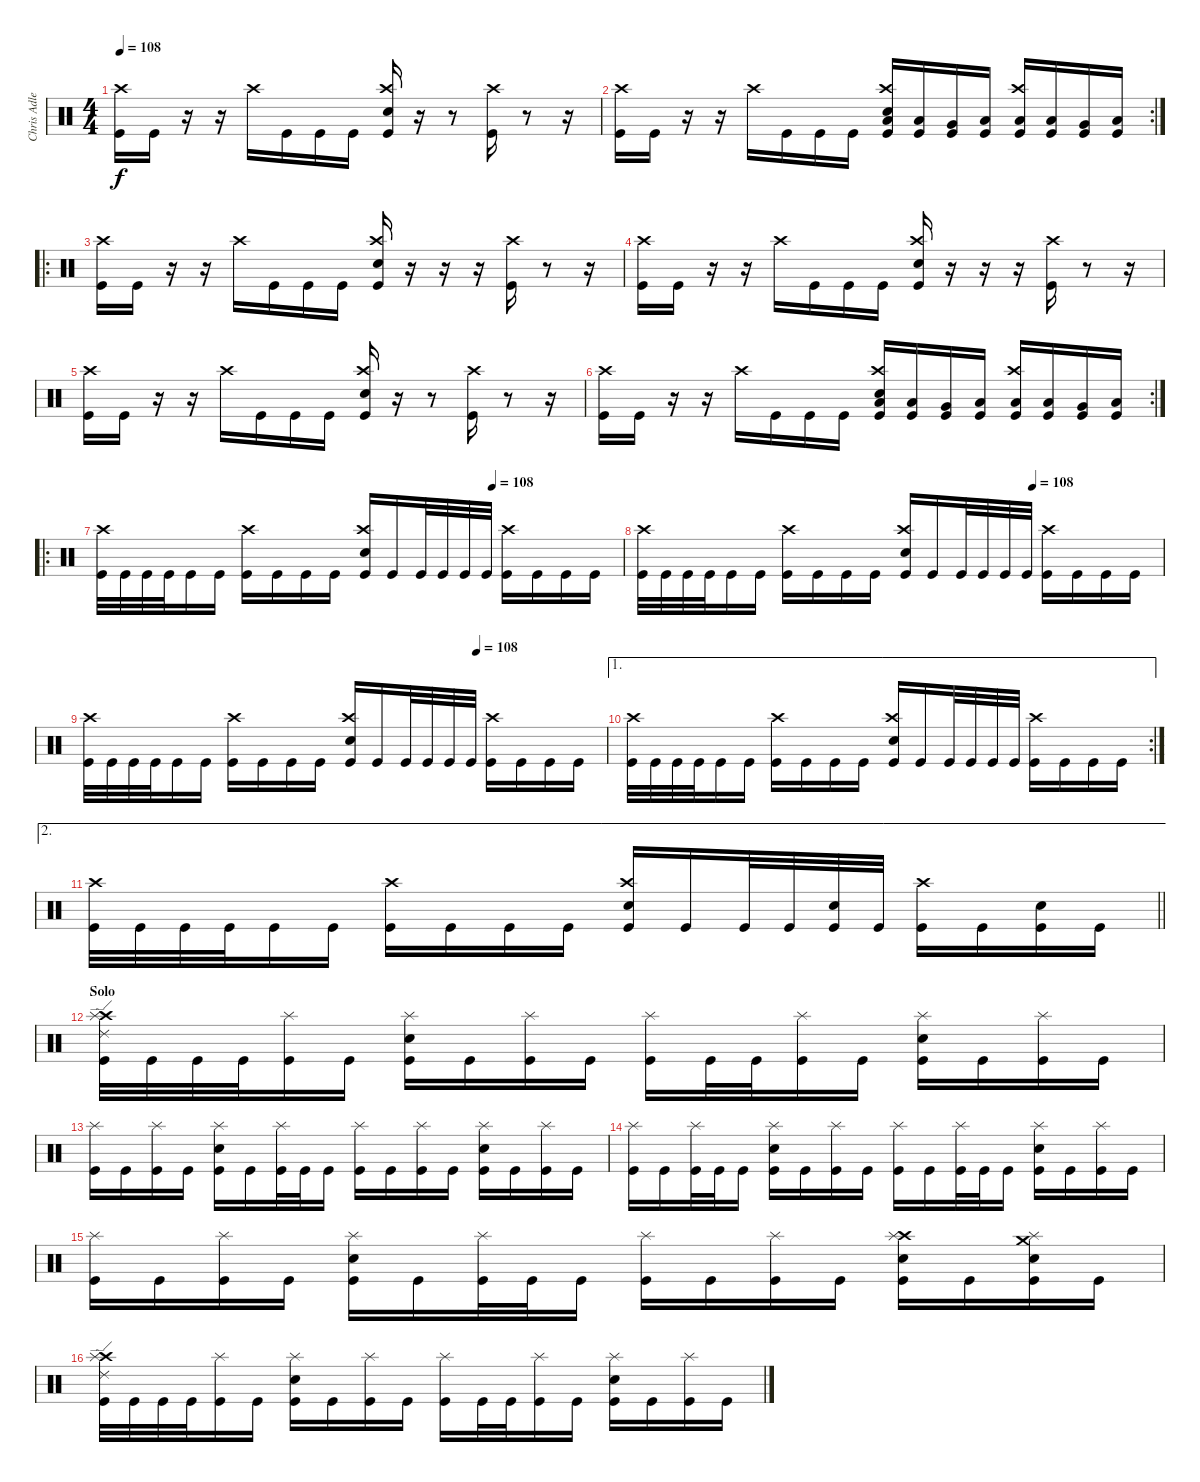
\track ("Chris Adler (Drumkit)" "Chris Adle") {instrument percussion}
\staff {score}
\articulation defaults
\ts (4 4)
\tempo 108
\clef neutral
\ks c
("Kick (hit)" "Crash high (hit)").16{dy f} "Kick (hit)".16 r.16 r.16 "Crash high (hit)".16 "Kick (hit)".16 "Kick (hit)".16 "Kick (hit)".16 ("Kick (hit)" "Snare (hit) 2" "Crash high (hit)").16 r.16 r.8 ("Kick (hit)" "Crash high (hit)").16 r.8 r.16 |
\rc 2
("Kick (hit)" "Crash high (hit)").16 "Kick (hit)".16 r.16 r.16 "Crash high (hit)".16 "Kick (hit)".16 "Kick (hit)".16 "Kick (hit)".16 ("Kick (hit)" "Low Floor Tom (hit)" "Snare (hit) 2" "Crash high (hit)").16 ("Kick (hit)" "Low Tom (hit)").16 ("Kick (hit)" "Very Low Tom (hit)").16 ("Kick (hit)" "Low Floor Tom (hit)").16 ("Kick (hit)" "Low Floor Tom (hit)" "Crash high (hit)").16 ("Kick (hit)" "Low Tom (hit)").16 ("Kick (hit)" "Very Low Tom (hit)").16 ("Kick (hit)" "Low Floor Tom (hit)").16 |
\ro
("Kick (hit)" "Crash high (hit)").16 "Kick (hit)".16 r.16 r.16 "Crash high (hit)".16 "Kick (hit)".16 "Kick (hit)".16 "Kick (hit)".16 ("Kick (hit)" "Snare (hit) 2" "Crash high (hit)").16 r.16 r.16 r.16 ("Kick (hit)" "Crash high (hit)").16 r.8 r.16 |
("Kick (hit)" "Crash high (hit)").16 "Kick (hit)".16 r.16 r.16 "Crash high (hit)".16 "Kick (hit)".16 "Kick (hit)".16 "Kick (hit)".16 ("Kick (hit)" "Snare (hit) 2" "Crash high (hit)").16 r.16 r.16 r.16 ("Kick (hit)" "Crash high (hit)").16 r.8 r.16 |
("Kick (hit)" "Crash high (hit)").16 "Kick (hit)".16 r.16 r.16 "Crash high (hit)".16 "Kick (hit)".16 "Kick (hit)".16 "Kick (hit)".16 ("Kick (hit)" "Snare (hit) 2" "Crash high (hit)").16 r.16 r.8 ("Kick (hit)" "Crash high (hit)").16 r.8 r.16 |
\rc 2
("Kick (hit)" "Crash high (hit)").16 "Kick (hit)".16 r.16 r.16 "Crash high (hit)".16 "Kick (hit)".16 "Kick (hit)".16 "Kick (hit)".16 ("Kick (hit)" "Low Floor Tom (hit)" "Snare (hit) 2" "Crash high (hit)").16 ("Kick (hit)" "Low Tom (hit)").16 ("Kick (hit)" "Very Low Tom (hit)").16 ("Kick (hit)" "Low Floor Tom (hit)").16 ("Kick (hit)" "Low Floor Tom (hit)" "Crash high (hit)").16 ("Kick (hit)" "Low Tom (hit)").16 ("Kick (hit)" "Very Low Tom (hit)").16 ("Kick (hit)" "Low Floor Tom (hit)").16 |
\ro
\tempo (108 0.75)
("Kick (hit)" "Crash high (hit)").32 "Kick (hit)".32 "Kick (hit)".32 "Kick (hit)".32 "Kick (hit)".16 "Kick (hit)".16 ("Kick (hit)" "Crash high (hit)").16 "Kick (hit)".16 "Kick (hit)".16 "Kick (hit)".16 ("Kick (hit)" "Snare (hit) 2" "Crash high (hit)").16 "Kick (hit)".16 "Kick (hit)".32 "Kick (hit)".32 "Kick (hit)".32 "Kick (hit)".32 ("Kick (hit)" "Crash high (hit)").16 "Kick (hit)".16 "Kick (hit)".16 "Kick (hit)".16 |
\tempo (108 0.75)
("Kick (hit)" "Crash high (hit)").32 "Kick (hit)".32 "Kick (hit)".32 "Kick (hit)".32 "Kick (hit)".16 "Kick (hit)".16 ("Kick (hit)" "Crash high (hit)").16 "Kick (hit)".16 "Kick (hit)".16 "Kick (hit)".16 ("Kick (hit)" "Snare (hit) 2" "Crash high (hit)").16 "Kick (hit)".16 "Kick (hit)".32 "Kick (hit)".32 "Kick (hit)".32 "Kick (hit)".32 ("Kick (hit)" "Crash high (hit)").16 "Kick (hit)".16 "Kick (hit)".16 "Kick (hit)".16 |
\tempo (108 0.75)
("Kick (hit)" "Crash high (hit)").32 "Kick (hit)".32 "Kick (hit)".32 "Kick (hit)".32 "Kick (hit)".16 "Kick (hit)".16 ("Kick (hit)" "Crash high (hit)").16 "Kick (hit)".16 "Kick (hit)".16 "Kick (hit)".16 ("Kick (hit)" "Snare (hit) 2" "Crash high (hit)").16 "Kick (hit)".16 "Kick (hit)".32 "Kick (hit)".32 "Kick (hit)".32 "Kick (hit)".32 ("Kick (hit)" "Crash high (hit)").16 "Kick (hit)".16 "Kick (hit)".16 "Kick (hit)".16 |
\ae 1
\rc 2
("Kick (hit)" "Crash high (hit)").32 "Kick (hit)".32 "Kick (hit)".32 "Kick (hit)".32 "Kick (hit)".16 "Kick (hit)".16 ("Kick (hit)" "Crash high (hit)").16 "Kick (hit)".16 "Kick (hit)".16 "Kick (hit)".16 ("Kick (hit)" "Snare (hit) 2" "Crash high (hit)").16 "Kick (hit)".16 "Kick (hit)".32 "Kick (hit)".32 "Kick (hit)".32 "Kick (hit)".32 ("Kick (hit)" "Crash high (hit)").16 "Kick (hit)".16 "Kick (hit)".16 "Kick (hit)".16 |
\ae 2
\barLineRight lightlight
("Kick (hit)" "Crash high (hit)").32 "Kick (hit)".32 "Kick (hit)".32 "Kick (hit)".32 "Kick (hit)".16 "Kick (hit)".16 ("Kick (hit)" "Crash high (hit)").16 "Kick (hit)".16 "Kick (hit)".16 "Kick (hit)".16 ("Kick (hit)" "Snare (hit) 2" "Crash high (hit)").16 "Kick (hit)".16 "Kick (hit)".32 "Kick (hit)".32 ("Kick (hit)" "Snare (hit) 2").32 "Kick (hit)".32 ("Kick (hit)" "Crash high (hit)").16 "Kick (hit)".16 ("Kick (hit)" "Snare (hit) 2").16 "Kick (hit)".16 |
\section ("" "Solo")
("Kick (hit)" "Crash high (hit)" "Ride (edge) 2" "Splash (hit)").32 "Kick (hit)".32 "Kick (hit)".32 "Kick (hit)".32 ("Kick (hit)" "Splash (hit)").16 "Kick (hit)".16 ("Kick (hit)" "Snare (hit) 2" "Splash (hit)").16 "Kick (hit)".16 ("Kick (hit)" "Splash (hit)").16 "Kick (hit)".16 ("Kick (hit)" "Splash (hit)").16 "Kick (hit)".32 "Kick (hit)".32 ("Kick (hit)" "Splash (hit)").16 "Kick (hit)".16 ("Kick (hit)" "Snare (hit) 2" "Splash (hit)").16 "Kick (hit)".16 ("Kick (hit)" "Splash (hit)").16 "Kick (hit)".16 |
("Kick (hit)" "Splash (hit)").16 "Kick (hit)".16 ("Kick (hit)" "Splash (hit)").16 "Kick (hit)".16 ("Kick (hit)" "Snare (hit) 2" "Splash (hit)").16 "Kick (hit)".16 ("Kick (hit)" "Splash (hit)").32 "Kick (hit)".32 "Kick (hit)".16 ("Kick (hit)" "Splash (hit)").16 "Kick (hit)".16 ("Kick (hit)" "Splash (hit)").16 "Kick (hit)".16 ("Kick (hit)" "Snare (hit) 2" "Splash (hit)").16 "Kick (hit)".16 ("Kick (hit)" "Splash (hit)").16 "Kick (hit)".16 |
("Kick (hit)" "Splash (hit)").16 "Kick (hit)".16 ("Kick (hit)" "Splash (hit)").32 "Kick (hit)".32 "Kick (hit)".16 ("Kick (hit)" "Snare (hit) 2" "Splash (hit)").16 "Kick (hit)".16 ("Kick (hit)" "Splash (hit)").16 "Kick (hit)".16 ("Kick (hit)" "Splash (hit)").16 "Kick (hit)".16 ("Kick (hit)" "Splash (hit)").32 "Kick (hit)".32 "Kick (hit)".16 ("Kick (hit)" "Snare (hit) 2" "Splash (hit)").16 "Kick (hit)".16 ("Kick (hit)" "Splash (hit)").16 "Kick (hit)".16 |
("Kick (hit)" "Splash (hit)").16 "Kick (hit)".16 ("Kick (hit)" "Splash (hit)").16 "Kick (hit)".16 ("Kick (hit)" "Snare (hit) 2" "Splash (hit)").16 "Kick (hit)".16 ("Kick (hit)" "Splash (hit)").32 "Kick (hit)".32 "Kick (hit)".16 ("Kick (hit)" "Splash (hit)").16 "Kick (hit)".16 ("Kick (hit)" "Splash (hit)").16 "Kick (hit)".16 ("Kick (hit)" "Crash high (hit)" "Snare (hit) 2" "Splash (hit)").16 "Kick (hit)".16 ("Kick (hit)" "Crash medium (hit)" "Snare (hit) 2" "Splash (hit)").16 "Kick (hit)".16 |
("Kick (hit)" "Crash high (hit)" "Ride (edge) 2" "Splash (hit)").32 "Kick (hit)".32 "Kick (hit)".32 "Kick (hit)".32 ("Kick (hit)" "Splash (hit)").16 "Kick (hit)".16 ("Kick (hit)" "Snare (hit) 2" "Splash (hit)").16 "Kick (hit)".16 ("Kick (hit)" "Splash (hit)").16 "Kick (hit)".16 ("Kick (hit)" "Splash (hit)").16 "Kick (hit)".32 "Kick (hit)".32 ("Kick (hit)" "Splash (hit)").16 "Kick (hit)".16 ("Kick (hit)" "Snare (hit) 2" "Splash (hit)").16 "Kick (hit)".16 ("Kick (hit)" "Splash (hit)").16 "Kick (hit)".16
